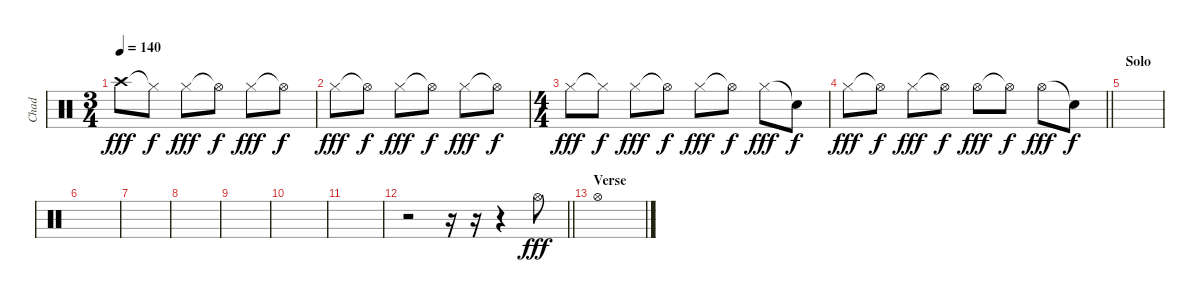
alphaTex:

\track ("Chad" "Chad") {instrument percussion}
\staff {score}
\articulation defaults
\ts (3 4)
\tempo 140
\clef neutral
\ks c "Crash high (hit)".8{dy fff} "Hi-Hat (closed)"{t}.8{dy f} "Hi-Hat (closed)".8{dy fff} "Hi-Hat (open)"{t}.8{dy f} "Hi-Hat (closed)".8{dy fff} "Hi-Hat (open)"{t}.8{dy f}
|
"Hi-Hat (closed)".8{dy fff} "Hi-Hat (open)"{t}.8{dy f} "Hi-Hat (closed)".8{dy fff} "Hi-Hat (open)"{t}.8{dy f} "Hi-Hat (closed)".8{dy fff} "Hi-Hat (open)"{t}.8{dy f} |
\ts (4 4)
"Hi-Hat (closed)".8{dy fff} "Hi-Hat (closed)"{t}.8{dy f} "Hi-Hat (closed)".8{dy fff} "Hi-Hat (open)"{t}.8{dy f} "Hi-Hat (closed)".8{dy fff} "Hi-Hat (open)"{t}.8{dy f} "Hi-Hat (closed)".8{dy fff} "Snare (hit)"{t}.8{dy f} |
\barLineRight lightlight "Hi-Hat (closed)".8{dy fff} "Hi-Hat (open)"{t}.8{dy f} "Hi-Hat (closed)".8{dy fff} "Hi-Hat (open)"{t}.8{dy f} "Hi-Hat (open)".8{dy fff} "Hi-Hat (open)"{t}.8{dy f} "Hi-Hat (open)".8{dy fff} "Snare (hit)"{t}.8{dy f}
|
\section ("" "Solo")
|
|
|
|
|
|
|
\barLineRight lightlight
r.2 r.16 r.16 r.4 "Hi-Hat (open)".8{dy fff} |
\section ("" "Verse")
"Hi-Hat (open)".1
